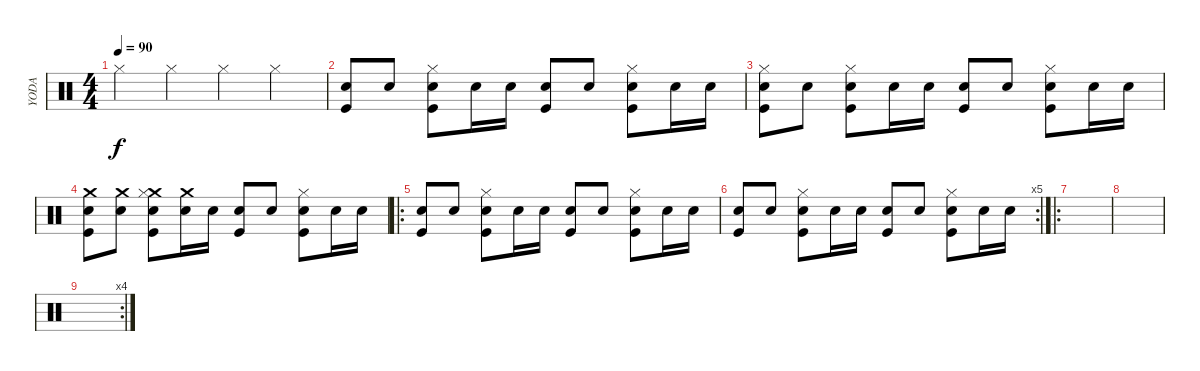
\track ("YODA" "YODA") {instrument percussion}
\staff {score}
\articulation defaults
\ts (4 4)
\tempo 90
\clef neutral
\ks c "Hi-Hat (closed)".4{dy f} "Hi-Hat (closed)".4 "Hi-Hat (closed)".4 "Hi-Hat (closed)".4
|
("Electric Snare (hit)" "Kick (hit)").8 "Electric Snare (hit)".8 ("Hi-Hat (closed)" "Electric Snare (hit)" "Kick (hit)").8 "Electric Snare (hit)".16 "Electric Snare (hit)".16 ("Electric Snare (hit)" "Kick (hit)").8 "Electric Snare (hit)".8 ("Hi-Hat (closed)" "Electric Snare (hit)" "Kick (hit)").8 "Electric Snare (hit)".16 "Electric Snare (hit)".16 |
("Hi-Hat (closed)" "Electric Snare (hit)" "Kick (hit)").8 "Electric Snare (hit)".8 ("Hi-Hat (closed)" "Electric Snare (hit)" "Kick (hit)").8 "Electric Snare (hit)".16 "Electric Snare (hit)".16 ("Electric Snare (hit)" "Kick (hit)").8 "Electric Snare (hit)".8 ("Hi-Hat (closed)" "Electric Snare (hit)" "Kick (hit)").8 "Electric Snare (hit)".16 "Electric Snare (hit)".16 |
("Crash medium (hit)" "Electric Snare (hit)" "Kick (hit)").8 ("Crash medium (hit)" "Electric Snare (hit)").8 ("Crash medium (hit)" "Hi-Hat (closed)" "Electric Snare (hit)" "Kick (hit)").8 ("Crash medium (hit)" "Electric Snare (hit)").16 "Electric Snare (hit)".16 ("Electric Snare (hit)" "Kick (hit)").8 "Electric Snare (hit)".8 ("Hi-Hat (closed)" "Electric Snare (hit)" "Kick (hit)").8 "Electric Snare (hit)".16 "Electric Snare (hit)".16 |
\ro
("Electric Snare (hit)" "Kick (hit)").8 "Electric Snare (hit)".8 ("Hi-Hat (closed)" "Electric Snare (hit)" "Kick (hit)").8 "Electric Snare (hit)".16 "Electric Snare (hit)".16 ("Electric Snare (hit)" "Kick (hit)").8 "Electric Snare (hit)".8 ("Hi-Hat (closed)" "Electric Snare (hit)" "Kick (hit)").8 "Electric Snare (hit)".16 "Electric Snare (hit)".16 |
\rc 5
("Electric Snare (hit)" "Kick (hit)").8 "Electric Snare (hit)".8 ("Hi-Hat (closed)" "Electric Snare (hit)" "Kick (hit)").8 "Electric Snare (hit)".16 "Electric Snare (hit)".16 ("Electric Snare (hit)" "Kick (hit)").8 "Electric Snare (hit)".8 ("Hi-Hat (closed)" "Electric Snare (hit)" "Kick (hit)").8 "Electric Snare (hit)".16 "Electric Snare (hit)".16 |
\ro
|
|
\rc 4
